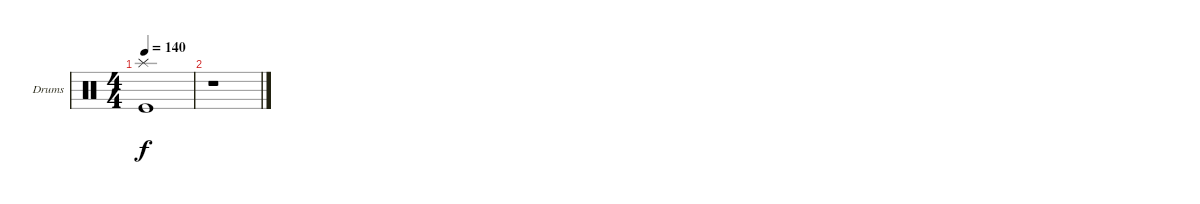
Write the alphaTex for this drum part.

\bracketExtendMode groupsimilarinstruments
\firstSystemTrackNameOrientation horizontal
\otherSystemsTrackNameOrientation horizontal
\track ("Drumkit" "Drums") {instrument percussion}
\staff {score}
\articulation defaults
\ts (4 4)
\tempo 140
\clef neutral
\ks c
("Splash (hit)" "Kick (hit)").1{dy f} |
r.1
